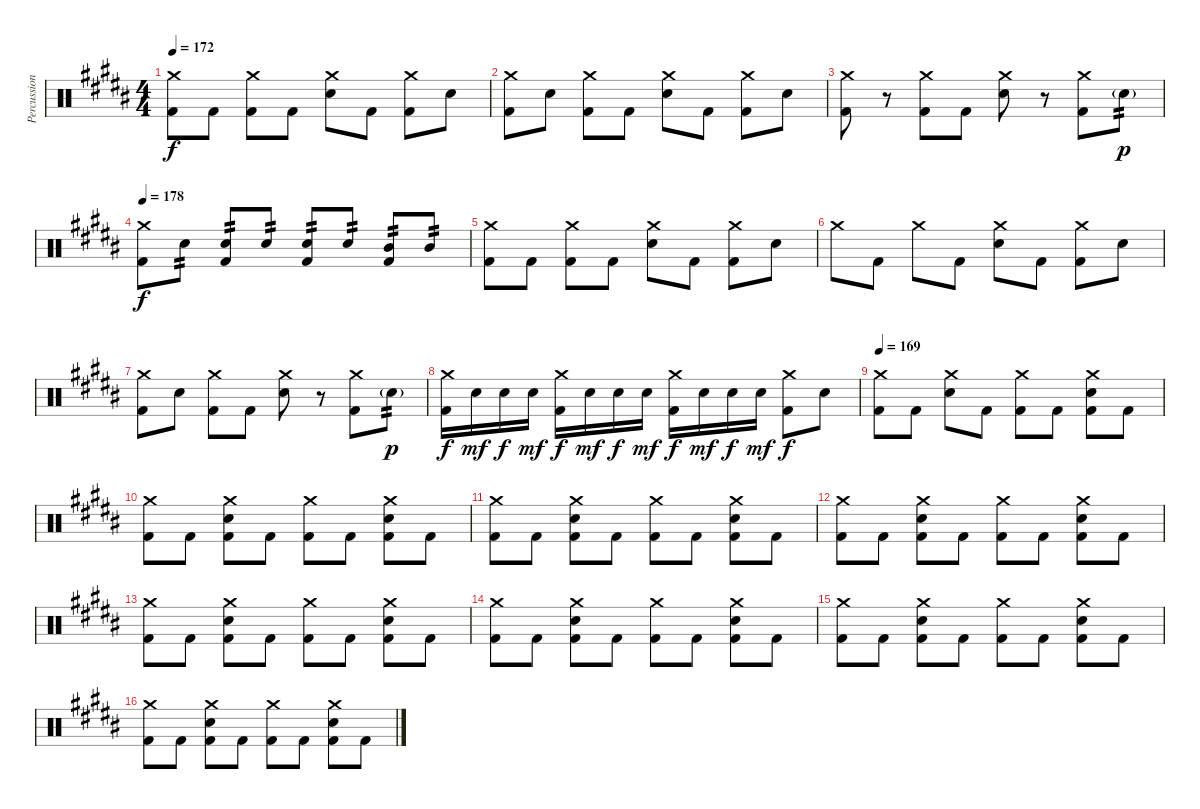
\track ("Percussion" "Percussion") {instrument percussion}
\staff {score}
\articulation defaults
\ts (4 4)
\tempo 172
\clef neutral
\ks g#minor
("Crash medium (hit)" "Kick (hit) 2").8{dy f} "Kick (hit) 2".8 ("Crash medium (hit)" "Kick (hit) 2").8 "Kick (hit) 2".8 ("Crash medium (hit)" "Snare (hit) 2").8 "Kick (hit) 2".8 ("Crash medium (hit)" "Kick (hit) 2").8 "Snare (hit) 2".8 |
("Crash medium (hit)" "Kick (hit) 2").8 "Snare (hit) 2".8 ("Crash medium (hit)" "Kick (hit) 2").8 "Kick (hit) 2".8 ("Crash medium (hit)" "Snare (hit) 2").8 "Kick (hit) 2".8 ("Crash medium (hit)" "Kick (hit) 2").8 "Snare (hit) 2".8 |
("Crash medium (hit)" "Kick (hit) 2").8 r.8 ("Crash medium (hit)" "Kick (hit) 2").8 "Kick (hit) 2".8 ("Crash medium (hit)" "Snare (hit) 2").8 r.8 ("Crash medium (hit)" "Kick (hit) 2").8 "Snare (hit) 2"{g}.8{tp 2 dy p} |
\tempo 178
("Crash medium (hit)" "Kick (hit) 2").8{dy f} "Snare (hit) 2".8{tp 2} ("Snare (hit) 2" "Kick (hit) 2").8{tp 2} "Snare (hit) 2".8{tp 2} ("Snare (hit) 2" "Kick (hit) 2").8{tp 2} "Snare (hit) 2".8{tp 2} ("Mid Tom (hit)" "Kick (hit) 2").8{tp 2} "Mid Tom (hit)".8{tp 2} |
("Crash medium (hit)" "Kick (hit) 2").8 "Kick (hit) 2".8 ("Crash medium (hit)" "Kick (hit) 2").8 "Kick (hit) 2".8 ("Crash medium (hit)" "Snare (hit) 2").8 "Kick (hit) 2".8 ("Crash medium (hit)" "Kick (hit) 2").8 "Snare (hit) 2".8 |
"Crash medium (hit)".8 "Kick (hit) 2".8 "Crash medium (hit)".8 "Kick (hit) 2".8 ("Crash medium (hit)" "Snare (hit) 2").8 "Kick (hit) 2".8 ("Crash medium (hit)" "Kick (hit) 2").8 "Snare (hit) 2".8 |
("Crash medium (hit)" "Kick (hit) 2").8 "Snare (hit) 2".8 ("Crash medium (hit)" "Kick (hit) 2").8 "Kick (hit) 2".8 ("Crash medium (hit)" "Snare (hit) 2").8 r.8 ("Crash medium (hit)" "Kick (hit) 2").8 "Snare (hit) 2"{g}.8{tp 2 dy p} |
("Crash medium (hit)" "Kick (hit) 2").16{dy f} "Snare (hit) 2".16{dy mf} "Snare (hit) 2".16{dy f} "Snare (hit) 2".16{dy mf} ("Crash medium (hit)" "Kick (hit) 2").16{dy f} "Snare (hit) 2".16{dy mf} "Snare (hit) 2".16{dy f} "Snare (hit) 2".16{dy mf} ("Crash medium (hit)" "Kick (hit) 2").16{dy f} "Snare (hit) 2".16{dy mf} "Snare (hit) 2".16{dy f} "Snare (hit) 2".16{dy mf} ("Crash medium (hit)" "Kick (hit) 2").8{dy f} "Snare (hit) 2".8 |
\tempo 169
("Crash medium (hit)" "Kick (hit) 2").8 "Kick (hit) 2".8 ("Crash medium (hit)" "Snare (hit) 2").8 "Kick (hit) 2".8 ("Crash medium (hit)" "Kick (hit) 2").8 "Kick (hit) 2".8 ("Crash medium (hit)" "Snare (hit) 2" "Kick (hit) 2").8 "Kick (hit) 2".8 |
("Crash medium (hit)" "Kick (hit) 2").8 "Kick (hit) 2".8 ("Crash medium (hit)" "Snare (hit) 2" "Kick (hit) 2").8 "Kick (hit) 2".8 ("Crash medium (hit)" "Kick (hit) 2").8 "Kick (hit) 2".8 ("Crash medium (hit)" "Snare (hit) 2" "Kick (hit) 2").8 "Kick (hit) 2".8 |
("Crash medium (hit)" "Kick (hit) 2").8 "Kick (hit) 2".8 ("Crash medium (hit)" "Snare (hit) 2" "Kick (hit) 2").8 "Kick (hit) 2".8 ("Crash medium (hit)" "Kick (hit) 2").8 "Kick (hit) 2".8 ("Crash medium (hit)" "Snare (hit) 2" "Kick (hit) 2").8 "Kick (hit) 2".8 |
("Crash medium (hit)" "Kick (hit) 2").8 "Kick (hit) 2".8 ("Crash medium (hit)" "Snare (hit) 2" "Kick (hit) 2").8 "Kick (hit) 2".8 ("Crash medium (hit)" "Kick (hit) 2").8 "Kick (hit) 2".8 ("Crash medium (hit)" "Snare (hit) 2" "Kick (hit) 2").8 "Kick (hit) 2".8 |
("Crash medium (hit)" "Kick (hit) 2").8 "Kick (hit) 2".8 ("Crash medium (hit)" "Snare (hit) 2" "Kick (hit) 2").8 "Kick (hit) 2".8 ("Crash medium (hit)" "Kick (hit) 2").8 "Kick (hit) 2".8 ("Crash medium (hit)" "Snare (hit) 2" "Kick (hit) 2").8 "Kick (hit) 2".8 |
("Crash medium (hit)" "Kick (hit) 2").8 "Kick (hit) 2".8 ("Crash medium (hit)" "Snare (hit) 2" "Kick (hit) 2").8 "Kick (hit) 2".8 ("Crash medium (hit)" "Kick (hit) 2").8 "Kick (hit) 2".8 ("Crash medium (hit)" "Snare (hit) 2" "Kick (hit) 2").8 "Kick (hit) 2".8 |
("Crash medium (hit)" "Kick (hit) 2").8 "Kick (hit) 2".8 ("Crash medium (hit)" "Snare (hit) 2" "Kick (hit) 2").8 "Kick (hit) 2".8 ("Crash medium (hit)" "Kick (hit) 2").8 "Kick (hit) 2".8 ("Crash medium (hit)" "Snare (hit) 2" "Kick (hit) 2").8 "Kick (hit) 2".8 |
("Crash medium (hit)" "Kick (hit) 2").8 "Kick (hit) 2".8 ("Crash medium (hit)" "Snare (hit) 2" "Kick (hit) 2").8 "Kick (hit) 2".8 ("Crash medium (hit)" "Kick (hit) 2").8 "Kick (hit) 2".8 ("Crash medium (hit)" "Snare (hit) 2" "Kick (hit) 2").8 "Kick (hit) 2".8
